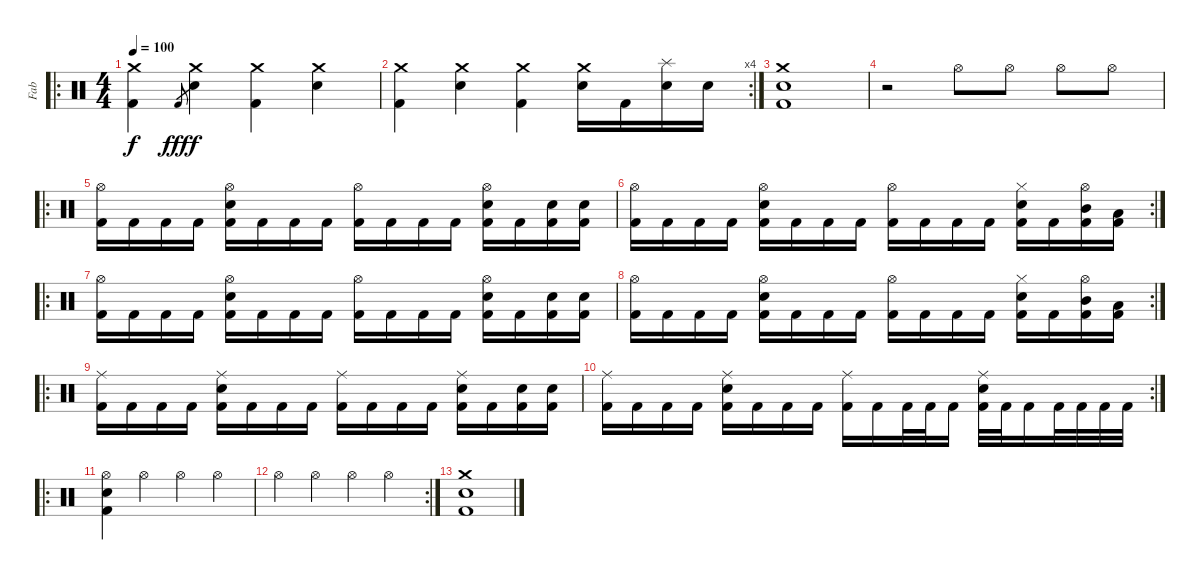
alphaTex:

\track ("Fab" "Fab") {instrument percussion}
\staff {score}
\articulation defaults
\ro
\ts (4 4)
\tempo 100
\clef neutral
\ks c
("Crash medium (hit)" "Kick (hit) 2").4{dy f} "Kick (hit) 2".8{gr dy fff} ("Crash medium (hit)" "Snare (hit) 2").4{dy f} ("Crash medium (hit)" "Kick (hit) 2").4 ("Crash medium (hit)" "Snare (hit) 2").4 |
\rc 4
("Crash medium (hit)" "Kick (hit) 2").4 ("Crash medium (hit)" "Snare (hit) 2").4 ("Crash medium (hit)" "Kick (hit) 2").4 ("Crash medium (hit)" "Snare (hit) 2").16 "Kick (hit) 2".16 ("Splash (hit)" "Snare (hit) 2").16 "Snare (hit) 2".16 |
("Crash medium (hit)" "Snare (hit) 2" "Kick (hit) 2").1 |
r.2 "Hi-Hat (open)".8 "Hi-Hat (open)".8 "Hi-Hat (open)".8 "Hi-Hat (open)".8 |
\ro
("Hi-Hat (open)" "Kick (hit) 2").16 "Kick (hit) 2".16 "Kick (hit) 2".16 "Kick (hit) 2".16 ("Hi-Hat (open)" "Snare (hit) 2" "Kick (hit) 2").16 "Kick (hit) 2".16 "Kick (hit) 2".16 "Kick (hit) 2".16 ("Hi-Hat (open)" "Kick (hit) 2").16 "Kick (hit) 2".16 "Kick (hit) 2".16 "Kick (hit) 2".16 ("Hi-Hat (open)" "Snare (hit) 2" "Kick (hit) 2").16 "Kick (hit) 2".16 ("Snare (hit) 2" "Kick (hit) 2").16 ("Snare (hit) 2" "Kick (hit) 2").16 |
\rc 2
("Hi-Hat (open)" "Kick (hit) 2").16 "Kick (hit) 2".16 "Kick (hit) 2".16 "Kick (hit) 2".16 ("Hi-Hat (open)" "Snare (hit) 2" "Kick (hit) 2").16 "Kick (hit) 2".16 "Kick (hit) 2".16 "Kick (hit) 2".16 ("Hi-Hat (open)" "Kick (hit) 2").16 "Kick (hit) 2".16 "Kick (hit) 2".16 "Kick (hit) 2".16 ("Hi-Hat (closed)" "Snare (hit) 2" "Kick (hit) 2").16 "Kick (hit) 2".16 ("Hi-Hat (open)" "Mid Tom (hit)" "Kick (hit) 2").16 ("Low Tom (hit)" "Kick (hit) 2").16 |
\ro
("Hi-Hat (open)" "Kick (hit) 2").16 "Kick (hit) 2".16 "Kick (hit) 2".16 "Kick (hit) 2".16 ("Hi-Hat (open)" "Snare (hit) 2" "Kick (hit) 2").16 "Kick (hit) 2".16 "Kick (hit) 2".16 "Kick (hit) 2".16 ("Hi-Hat (open)" "Kick (hit) 2").16 "Kick (hit) 2".16 "Kick (hit) 2".16 "Kick (hit) 2".16 ("Hi-Hat (open)" "Snare (hit) 2" "Kick (hit) 2").16 "Kick (hit) 2".16 ("Snare (hit) 2" "Kick (hit) 2").16 ("Snare (hit) 2" "Kick (hit) 2").16 |
\rc 2
("Hi-Hat (open)" "Kick (hit) 2").16 "Kick (hit) 2".16 "Kick (hit) 2".16 "Kick (hit) 2".16 ("Hi-Hat (open)" "Snare (hit) 2" "Kick (hit) 2").16 "Kick (hit) 2".16 "Kick (hit) 2".16 "Kick (hit) 2".16 ("Hi-Hat (open)" "Kick (hit) 2").16 "Kick (hit) 2".16 "Kick (hit) 2".16 "Kick (hit) 2".16 ("Hi-Hat (closed)" "Snare (hit) 2" "Kick (hit) 2").16 "Kick (hit) 2".16 ("Hi-Hat (open)" "Mid Tom (hit)" "Kick (hit) 2").16 ("Low Tom (hit)" "Kick (hit) 2").16 |
\ro
("Ride (middle)" "Kick (hit) 2").16 "Kick (hit) 2".16 "Kick (hit) 2".16 "Kick (hit) 2".16 ("Ride (middle)" "Snare (hit) 2" "Kick (hit) 2").16 "Kick (hit) 2".16 "Kick (hit) 2".16 "Kick (hit) 2".16 ("Ride (middle)" "Kick (hit) 2").16 "Kick (hit) 2".16 "Kick (hit) 2".16 "Kick (hit) 2".16 ("Ride (middle)" "Snare (hit) 2" "Kick (hit) 2").16 "Kick (hit) 2".16 ("Snare (hit) 2" "Kick (hit) 2").16 ("Snare (hit) 2" "Kick (hit) 2").16 |
\rc 2
("Ride (middle)" "Kick (hit) 2").16 "Kick (hit) 2".16 "Kick (hit) 2".16 "Kick (hit) 2".16 ("Ride (middle)" "Snare (hit) 2" "Kick (hit) 2").16 "Kick (hit) 2".16 "Kick (hit) 2".16 "Kick (hit) 2".16 ("Ride (middle)" "Kick (hit) 2").16 "Kick (hit) 2".16 "Kick (hit) 2".32 "Kick (hit) 2".32 "Kick (hit) 2".16 ("Ride (middle)" "Snare (hit) 2" "Kick (hit) 2").32 "Kick (hit) 2".32 "Kick (hit) 2".16 "Kick (hit) 2".32 "Kick (hit) 2".32 "Kick (hit) 2".32 "Kick (hit) 2".32 |
\ro
("Hi-Hat (open)" "Snare (hit) 2" "Kick (hit) 2").4 "Hi-Hat (open)".4 "Hi-Hat (open)".4 "Hi-Hat (open)".4 |
\rc 2 "Hi-Hat (open)".4 "Hi-Hat (open)".4 "Hi-Hat (open)".4 "Hi-Hat (open)".4
|
("Crash medium (hit)" "Snare (hit) 2" "Kick (hit) 2").1
